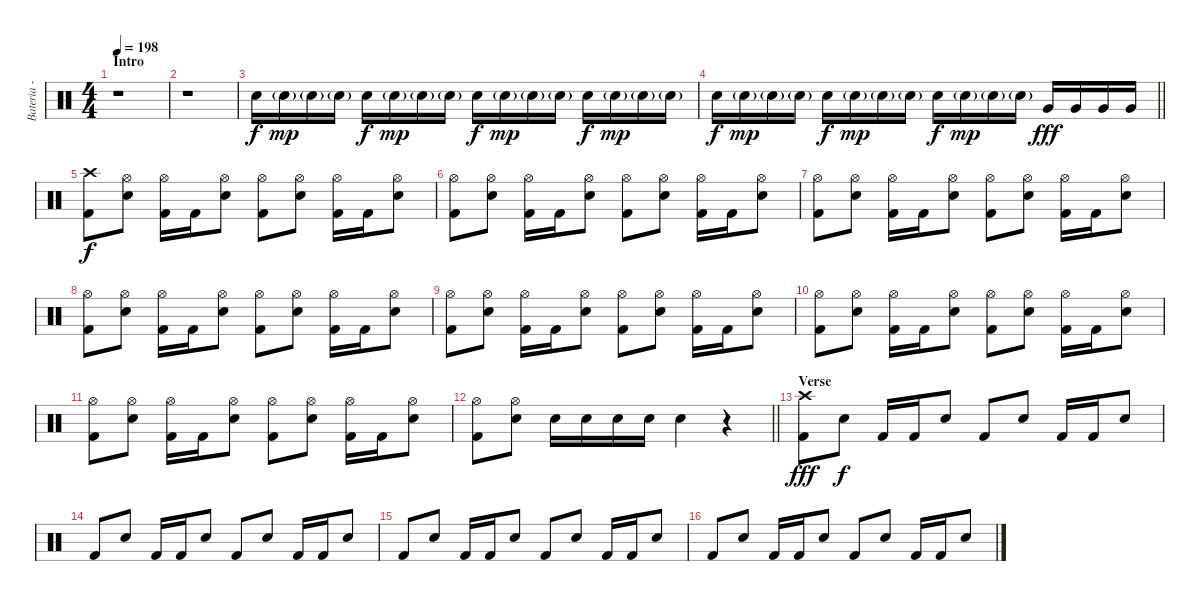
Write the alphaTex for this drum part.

\track ("Bateria - Larzon" "Bateria - ") {instrument percussion}
\staff {score}
\articulation defaults
\ts (4 4)
\section ("" "Intro")
\tempo 198
\clef neutral
\ks c
r.1{dy f} |
r.1 |
"Snare (hit) 2".16 "Snare (hit) 2"{g}.16{dy mp} "Snare (hit) 2"{g}.16 "Snare (hit) 2"{g}.16 "Snare (hit) 2".16{dy f} "Snare (hit) 2"{g}.16{dy mp} "Snare (hit) 2"{g}.16 "Snare (hit) 2"{g}.16 "Snare (hit) 2".16{dy f} "Snare (hit) 2"{g}.16{dy mp} "Snare (hit) 2"{g}.16 "Snare (hit) 2"{g}.16 "Snare (hit) 2".16{dy f} "Snare (hit) 2"{g}.16{dy mp} "Snare (hit) 2"{g}.16 "Snare (hit) 2"{g}.16 |
\barLineRight lightlight "Snare (hit) 2".16{dy f} "Snare (hit) 2"{g}.16{dy mp} "Snare (hit) 2"{g}.16 "Snare (hit) 2"{g}.16 "Snare (hit) 2".16{dy f} "Snare (hit) 2"{g}.16{dy mp} "Snare (hit) 2"{g}.16 "Snare (hit) 2"{g}.16 "Snare (hit) 2".16{dy f} "Snare (hit) 2"{g}.16{dy mp} "Snare (hit) 2"{g}.16 "Snare (hit) 2"{g}.16 "Very Low Tom (hit)".16{dy fff} "Very Low Tom (hit)".16 "Very Low Tom (hit)".16 "Very Low Tom (hit)".16
|
("Crash high (hit)" "Kick (hit) 2").8{dy f} ("Hi-Hat (open)" "Snare (hit) 2").8 ("Hi-Hat (open)" "Kick (hit) 2").16 "Kick (hit) 2".16 ("Hi-Hat (open)" "Snare (hit) 2").8 ("Hi-Hat (open)" "Kick (hit) 2").8 ("Hi-Hat (open)" "Snare (hit) 2").8 ("Hi-Hat (open)" "Kick (hit) 2").16 "Kick (hit) 2".16 ("Hi-Hat (open)" "Snare (hit) 2").8 |
("Hi-Hat (open)" "Kick (hit) 2").8 ("Hi-Hat (open)" "Snare (hit) 2").8 ("Hi-Hat (open)" "Kick (hit) 2").16 "Kick (hit) 2".16 ("Hi-Hat (open)" "Snare (hit) 2").8 ("Hi-Hat (open)" "Kick (hit) 2").8 ("Hi-Hat (open)" "Snare (hit) 2").8 ("Hi-Hat (open)" "Kick (hit) 2").16 "Kick (hit) 2".16 ("Hi-Hat (open)" "Snare (hit) 2").8 |
("Hi-Hat (open)" "Kick (hit) 2").8 ("Hi-Hat (open)" "Snare (hit) 2").8 ("Hi-Hat (open)" "Kick (hit) 2").16 "Kick (hit) 2".16 ("Hi-Hat (open)" "Snare (hit) 2").8 ("Hi-Hat (open)" "Kick (hit) 2").8 ("Hi-Hat (open)" "Snare (hit) 2").8 ("Hi-Hat (open)" "Kick (hit) 2").16 "Kick (hit) 2".16 ("Hi-Hat (open)" "Snare (hit) 2").8 |
("Hi-Hat (open)" "Kick (hit) 2").8 ("Hi-Hat (open)" "Snare (hit) 2").8 ("Hi-Hat (open)" "Kick (hit) 2").16 "Kick (hit) 2".16 ("Hi-Hat (open)" "Snare (hit) 2").8 ("Hi-Hat (open)" "Kick (hit) 2").8 ("Hi-Hat (open)" "Snare (hit) 2").8 ("Hi-Hat (open)" "Kick (hit) 2").16 "Kick (hit) 2".16 ("Hi-Hat (open)" "Snare (hit) 2").8 |
("Hi-Hat (open)" "Kick (hit) 2").8 ("Hi-Hat (open)" "Snare (hit) 2").8 ("Hi-Hat (open)" "Kick (hit) 2").16 "Kick (hit) 2".16 ("Hi-Hat (open)" "Snare (hit) 2").8 ("Hi-Hat (open)" "Kick (hit) 2").8 ("Hi-Hat (open)" "Snare (hit) 2").8 ("Hi-Hat (open)" "Kick (hit) 2").16 "Kick (hit) 2".16 ("Hi-Hat (open)" "Snare (hit) 2").8 |
("Hi-Hat (open)" "Kick (hit) 2").8 ("Hi-Hat (open)" "Snare (hit) 2").8 ("Hi-Hat (open)" "Kick (hit) 2").16 "Kick (hit) 2".16 ("Hi-Hat (open)" "Snare (hit) 2").8 ("Hi-Hat (open)" "Kick (hit) 2").8 ("Hi-Hat (open)" "Snare (hit) 2").8 ("Hi-Hat (open)" "Kick (hit) 2").16 "Kick (hit) 2".16 ("Hi-Hat (open)" "Snare (hit) 2").8 |
("Hi-Hat (open)" "Kick (hit) 2").8 ("Hi-Hat (open)" "Snare (hit) 2").8 ("Hi-Hat (open)" "Kick (hit) 2").16 "Kick (hit) 2".16 ("Hi-Hat (open)" "Snare (hit) 2").8 ("Hi-Hat (open)" "Kick (hit) 2").8 ("Hi-Hat (open)" "Snare (hit) 2").8 ("Hi-Hat (open)" "Kick (hit) 2").16 "Kick (hit) 2".16 ("Hi-Hat (open)" "Snare (hit) 2").8 |
\barLineRight lightlight
("Hi-Hat (open)" "Kick (hit) 2").8 ("Hi-Hat (open)" "Snare (hit) 2").8 "Snare (hit) 2".16 "Snare (hit) 2".16 "Snare (hit) 2".16 "Snare (hit) 2".16 "Snare (hit) 2".4 r.4 |
\section ("" "Verse")
("Crash high (hit)" "Kick (hit) 2").8{dy fff} "Snare (hit) 2".8{dy f} "Kick (hit) 2".16 "Kick (hit) 2".16 "Snare (hit) 2".8 "Kick (hit) 2".8 "Snare (hit) 2".8 "Kick (hit) 2".16 "Kick (hit) 2".16 "Snare (hit) 2".8 |
"Kick (hit) 2".8 "Snare (hit) 2".8 "Kick (hit) 2".16 "Kick (hit) 2".16 "Snare (hit) 2".8 "Kick (hit) 2".8 "Snare (hit) 2".8 "Kick (hit) 2".16 "Kick (hit) 2".16 "Snare (hit) 2".8 |
"Kick (hit) 2".8 "Snare (hit) 2".8 "Kick (hit) 2".16 "Kick (hit) 2".16 "Snare (hit) 2".8 "Kick (hit) 2".8 "Snare (hit) 2".8 "Kick (hit) 2".16 "Kick (hit) 2".16 "Snare (hit) 2".8 |
"Kick (hit) 2".8 "Snare (hit) 2".8 "Kick (hit) 2".16 "Kick (hit) 2".16 "Snare (hit) 2".8 "Kick (hit) 2".8 "Snare (hit) 2".8 "Kick (hit) 2".16 "Kick (hit) 2".16 "Snare (hit) 2".8
